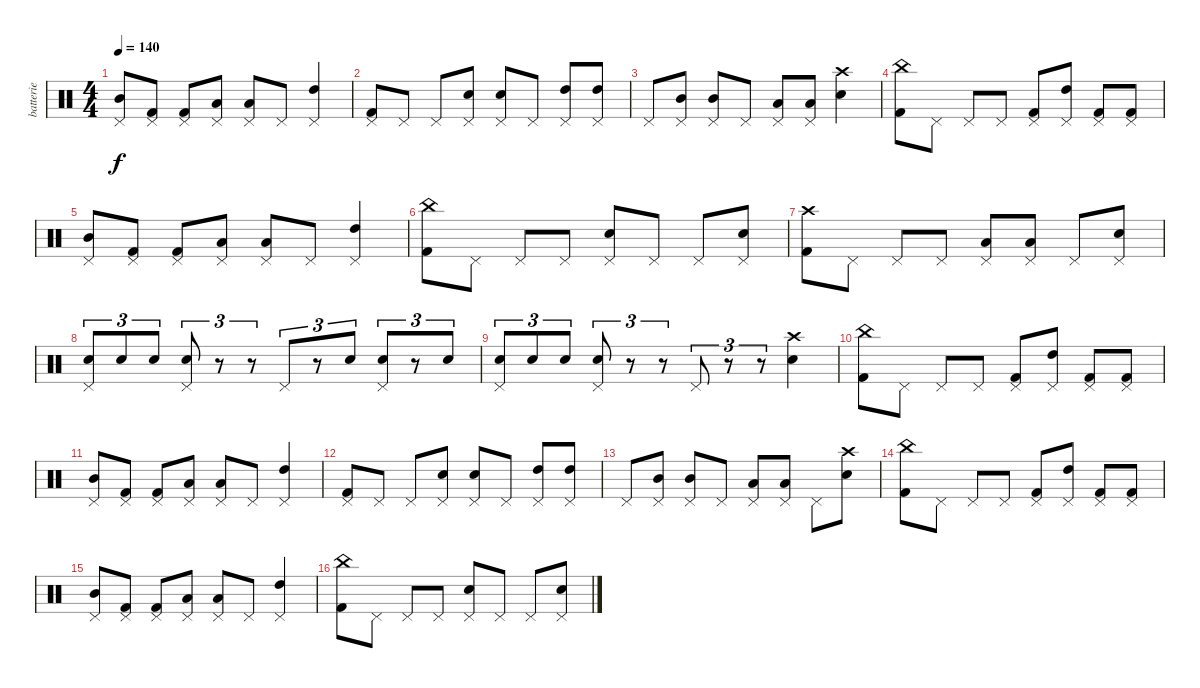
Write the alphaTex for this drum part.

\track ("batterie" "batterie") {instrument percussion}
\staff {score}
\articulation defaults
\ts (4 4)
\tempo 140
\clef neutral
\ks c
("Mid Tom (hit)" "Pedal Hi-Hat (hit)").8{dy f} ("Kick (hit) 2" "Pedal Hi-Hat (hit)").8 ("Kick (hit) 2" "Pedal Hi-Hat (hit)").8 ("Low Tom (hit)" "Pedal Hi-Hat (hit)").8 ("Low Tom (hit)" "Pedal Hi-Hat (hit)").8 "Pedal Hi-Hat (hit)".8 ("High Tom (hit)" "Pedal Hi-Hat (hit)").4 |
("Kick (hit) 2" "Pedal Hi-Hat (hit)").8 "Pedal Hi-Hat (hit)".8 "Pedal Hi-Hat (hit)".8 ("Snare (hit) 2" "Pedal Hi-Hat (hit)").8 ("Snare (hit) 2" "Pedal Hi-Hat (hit)").8 "Pedal Hi-Hat (hit)".8 ("High Tom (hit)" "Pedal Hi-Hat (hit)").8 ("High Tom (hit)" "Pedal Hi-Hat (hit)").8 |
"Pedal Hi-Hat (hit)".8 ("Mid Tom (hit)" "Pedal Hi-Hat (hit)").8 ("Mid Tom (hit)" "Pedal Hi-Hat (hit)").8 "Pedal Hi-Hat (hit)".8 ("Low Tom (hit)" "Pedal Hi-Hat (hit)").8 ("Low Tom (hit)" "Pedal Hi-Hat (hit)").8 ("Crash high (hit)" "Snare (hit) 2").4 |
("China (hit)" "Kick (hit) 2").8 "Pedal Hi-Hat (hit)".8 "Pedal Hi-Hat (hit)".8 "Pedal Hi-Hat (hit)".8 ("Kick (hit) 2" "Pedal Hi-Hat (hit)").8 ("High Tom (hit)" "Pedal Hi-Hat (hit)").8 ("Kick (hit) 2" "Pedal Hi-Hat (hit)").8 ("Kick (hit) 2" "Pedal Hi-Hat (hit)").8 |
("Mid Tom (hit)" "Pedal Hi-Hat (hit)").8 ("Kick (hit) 2" "Pedal Hi-Hat (hit)").8 ("Kick (hit) 2" "Pedal Hi-Hat (hit)").8 ("Low Tom (hit)" "Pedal Hi-Hat (hit)").8 ("Low Tom (hit)" "Pedal Hi-Hat (hit)").8 "Pedal Hi-Hat (hit)".8 ("High Tom (hit)" "Pedal Hi-Hat (hit)").4 |
("China (hit)" "Kick (hit) 2").8 "Pedal Hi-Hat (hit)".8 "Pedal Hi-Hat (hit)".8 "Pedal Hi-Hat (hit)".8 ("Snare (hit) 2" "Pedal Hi-Hat (hit)").8 "Pedal Hi-Hat (hit)".8 "Pedal Hi-Hat (hit)".8 ("Snare (hit) 2" "Pedal Hi-Hat (hit)").8 |
("Crash high (hit)" "Kick (hit) 2").8 "Pedal Hi-Hat (hit)".8 "Pedal Hi-Hat (hit)".8 "Pedal Hi-Hat (hit)".8 ("Low Tom (hit)" "Pedal Hi-Hat (hit)").8 ("Low Tom (hit)" "Pedal Hi-Hat (hit)").8 "Pedal Hi-Hat (hit)".8 ("Snare (hit) 2" "Pedal Hi-Hat (hit)").8 |
("Snare (hit) 2" "Pedal Hi-Hat (hit)").8{tu (3 2)} "Snare (hit) 2".8{tu (3 2)} "Snare (hit) 2".8{tu (3 2)} ("Snare (hit) 2" "Pedal Hi-Hat (hit)").8{tu (3 2)} r.8{tu (3 2)} r.8{tu (3 2)} "Pedal Hi-Hat (hit)".8{tu (3 2)} r.8{tu (3 2)} "Snare (hit) 2".8{tu (3 2)} ("Snare (hit) 2" "Pedal Hi-Hat (hit)").8{tu (3 2)} r.8{tu (3 2)} "Snare (hit) 2".8{tu (3 2)} |
("Snare (hit) 2" "Pedal Hi-Hat (hit)").8{tu (3 2)} "Snare (hit) 2".8{tu (3 2)} "Snare (hit) 2".8{tu (3 2)} ("Snare (hit) 2" "Pedal Hi-Hat (hit)").8{tu (3 2)} r.8{tu (3 2)} r.8{tu (3 2)} "Pedal Hi-Hat (hit)".8{tu (3 2)} r.8{tu (3 2)} r.8{tu (3 2)} ("Crash high (hit)" "Snare (hit) 2").4 |
("China (hit)" "Kick (hit) 2").8 "Pedal Hi-Hat (hit)".8 "Pedal Hi-Hat (hit)".8 "Pedal Hi-Hat (hit)".8 ("Kick (hit) 2" "Pedal Hi-Hat (hit)").8 ("High Tom (hit)" "Pedal Hi-Hat (hit)").8 ("Kick (hit) 2" "Pedal Hi-Hat (hit)").8 ("Kick (hit) 2" "Pedal Hi-Hat (hit)").8 |
("Mid Tom (hit)" "Pedal Hi-Hat (hit)").8 ("Kick (hit) 2" "Pedal Hi-Hat (hit)").8 ("Kick (hit) 2" "Pedal Hi-Hat (hit)").8 ("Low Tom (hit)" "Pedal Hi-Hat (hit)").8 ("Low Tom (hit)" "Pedal Hi-Hat (hit)").8 "Pedal Hi-Hat (hit)".8 ("High Tom (hit)" "Pedal Hi-Hat (hit)").4 |
("Kick (hit) 2" "Pedal Hi-Hat (hit)").8 "Pedal Hi-Hat (hit)".8 "Pedal Hi-Hat (hit)".8 ("Snare (hit) 2" "Pedal Hi-Hat (hit)").8 ("Snare (hit) 2" "Pedal Hi-Hat (hit)").8 "Pedal Hi-Hat (hit)".8 ("High Tom (hit)" "Pedal Hi-Hat (hit)").8 ("High Tom (hit)" "Pedal Hi-Hat (hit)").8 |
"Pedal Hi-Hat (hit)".8 ("Mid Tom (hit)" "Pedal Hi-Hat (hit)").8 ("Mid Tom (hit)" "Pedal Hi-Hat (hit)").8 "Pedal Hi-Hat (hit)".8 ("Low Tom (hit)" "Pedal Hi-Hat (hit)").8 ("Low Tom (hit)" "Pedal Hi-Hat (hit)").8 "Pedal Hi-Hat (hit)".8 ("Crash high (hit)" "Snare (hit) 2").8 |
("China (hit)" "Kick (hit) 2").8 "Pedal Hi-Hat (hit)".8 "Pedal Hi-Hat (hit)".8 "Pedal Hi-Hat (hit)".8 ("Kick (hit) 2" "Pedal Hi-Hat (hit)").8 ("High Tom (hit)" "Pedal Hi-Hat (hit)").8 ("Kick (hit) 2" "Pedal Hi-Hat (hit)").8 ("Kick (hit) 2" "Pedal Hi-Hat (hit)").8 |
("Mid Tom (hit)" "Pedal Hi-Hat (hit)").8 ("Kick (hit) 2" "Pedal Hi-Hat (hit)").8 ("Kick (hit) 2" "Pedal Hi-Hat (hit)").8 ("Low Tom (hit)" "Pedal Hi-Hat (hit)").8 ("Low Tom (hit)" "Pedal Hi-Hat (hit)").8 "Pedal Hi-Hat (hit)".8 ("High Tom (hit)" "Pedal Hi-Hat (hit)").4 |
("China (hit)" "Kick (hit) 2").8 "Pedal Hi-Hat (hit)".8 "Pedal Hi-Hat (hit)".8 "Pedal Hi-Hat (hit)".8 ("Snare (hit) 2" "Pedal Hi-Hat (hit)").8 "Pedal Hi-Hat (hit)".8 "Pedal Hi-Hat (hit)".8 ("Snare (hit) 2" "Pedal Hi-Hat (hit)").8
